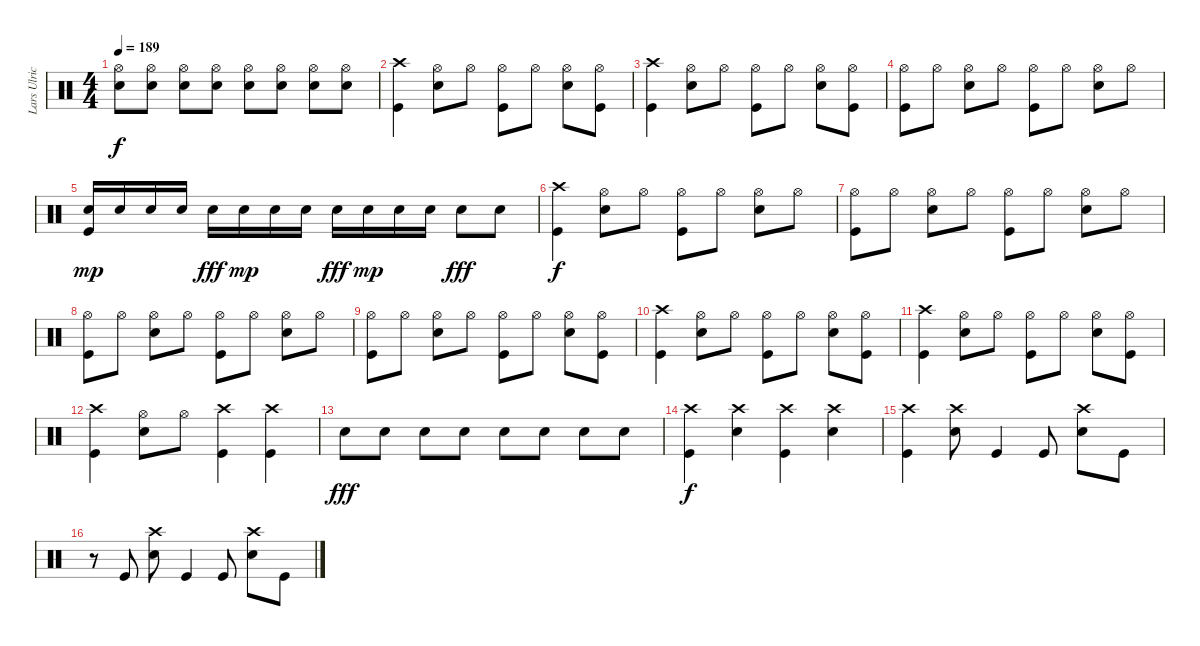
\track ("Lars Ulrich" "Lars Ulric") {instrument percussion}
\staff {score}
\articulation defaults
\ts (4 4)
\tempo 189
\clef neutral
\ks c
("Hi-Hat (open)" "Electric Snare (hit)").8{dy f} ("Hi-Hat (open)" "Electric Snare (hit)").8 ("Hi-Hat (open)" "Electric Snare (hit)").8 ("Hi-Hat (open)" "Electric Snare (hit)").8 ("Hi-Hat (open)" "Electric Snare (hit)").8 ("Hi-Hat (open)" "Electric Snare (hit)").8 ("Hi-Hat (open)" "Electric Snare (hit)").8 ("Hi-Hat (open)" "Electric Snare (hit)").8 |
("Crash high (hit)" "Kick (hit)").4 ("Hi-Hat (open)" "Electric Snare (hit)").8 "Hi-Hat (open)".8 ("Hi-Hat (open)" "Kick (hit)").8 "Hi-Hat (open)".8 ("Hi-Hat (open)" "Electric Snare (hit)").8 ("Hi-Hat (open)" "Kick (hit)").8 |
("Crash high (hit)" "Kick (hit)").4 ("Hi-Hat (open)" "Electric Snare (hit)").8 "Hi-Hat (open)".8 ("Hi-Hat (open)" "Kick (hit)").8 "Hi-Hat (open)".8 ("Hi-Hat (open)" "Electric Snare (hit)").8 ("Hi-Hat (open)" "Kick (hit)").8 |
("Hi-Hat (open)" "Kick (hit)").8 "Hi-Hat (open)".8 ("Hi-Hat (open)" "Electric Snare (hit)").8 "Hi-Hat (open)".8 ("Hi-Hat (open)" "Kick (hit)").8 "Hi-Hat (open)".8 ("Hi-Hat (open)" "Electric Snare (hit)").8 "Hi-Hat (open)".8 |
("Electric Snare (hit)" "Kick (hit)").16{dy mp} "Electric Snare (hit)".16 "Electric Snare (hit)".16 "Electric Snare (hit)".16 "Electric Snare (hit)".16{dy fff} "Electric Snare (hit)".16{dy mp} "Electric Snare (hit)".16 "Electric Snare (hit)".16 "Electric Snare (hit)".16{dy fff} "Electric Snare (hit)".16{dy mp} "Electric Snare (hit)".16 "Electric Snare (hit)".16 "Electric Snare (hit)".8{dy fff} "Electric Snare (hit)".8 |
("Crash high (hit)" "Kick (hit)").4{dy f} ("Hi-Hat (open)" "Electric Snare (hit)").8 "Hi-Hat (open)".8 ("Hi-Hat (open)" "Kick (hit)").8 "Hi-Hat (open)".8 ("Hi-Hat (open)" "Electric Snare (hit)").8 "Hi-Hat (open)".8 |
("Hi-Hat (open)" "Kick (hit)").8 "Hi-Hat (open)".8 ("Hi-Hat (open)" "Electric Snare (hit)").8 "Hi-Hat (open)".8 ("Hi-Hat (open)" "Kick (hit)").8 "Hi-Hat (open)".8 ("Hi-Hat (open)" "Electric Snare (hit)").8 "Hi-Hat (open)".8 |
("Hi-Hat (open)" "Kick (hit)").8 "Hi-Hat (open)".8 ("Hi-Hat (open)" "Electric Snare (hit)").8 "Hi-Hat (open)".8 ("Hi-Hat (open)" "Kick (hit)").8 "Hi-Hat (open)".8 ("Hi-Hat (open)" "Electric Snare (hit)").8 "Hi-Hat (open)".8 |
("Hi-Hat (open)" "Kick (hit)").8 "Hi-Hat (open)".8 ("Hi-Hat (open)" "Electric Snare (hit)").8 "Hi-Hat (open)".8 ("Hi-Hat (open)" "Kick (hit)").8 "Hi-Hat (open)".8 ("Hi-Hat (open)" "Electric Snare (hit)").8 ("Hi-Hat (open)" "Kick (hit)").8 |
("Crash high (hit)" "Kick (hit)").4 ("Hi-Hat (open)" "Electric Snare (hit)").8 "Hi-Hat (open)".8 ("Hi-Hat (open)" "Kick (hit)").8 "Hi-Hat (open)".8 ("Hi-Hat (open)" "Electric Snare (hit)").8 ("Hi-Hat (open)" "Kick (hit)").8 |
("Crash high (hit)" "Kick (hit)").4 ("Hi-Hat (open)" "Electric Snare (hit)").8 "Hi-Hat (open)".8 ("Hi-Hat (open)" "Kick (hit)").8 "Hi-Hat (open)".8 ("Hi-Hat (open)" "Electric Snare (hit)").8 ("Hi-Hat (open)" "Kick (hit)").8 |
("Crash high (hit)" "Kick (hit)").4 ("Hi-Hat (open)" "Electric Snare (hit)").8 "Hi-Hat (open)".8 ("Crash high (hit)" "Kick (hit)").4 ("Crash high (hit)" "Kick (hit)").4 |
"Electric Snare (hit)".8{dy fff} "Electric Snare (hit)".8 "Electric Snare (hit)".8 "Electric Snare (hit)".8 "Electric Snare (hit)".8 "Electric Snare (hit)".8 "Electric Snare (hit)".8 "Electric Snare (hit)".8 |
("Crash high (hit)" "Kick (hit)").4{dy f} ("Crash high (hit)" "Electric Snare (hit)").4 ("Crash high (hit)" "Kick (hit)").4 ("Crash high (hit)" "Electric Snare (hit)").4 |
("Crash high (hit)" "Kick (hit)").4 ("Crash high (hit)" "Electric Snare (hit)").8 "Kick (hit)".4 "Kick (hit)".8 ("Crash high (hit)" "Electric Snare (hit)").8 "Kick (hit)".8 |
r.8 "Kick (hit)".8 ("Crash high (hit)" "Electric Snare (hit)").8 "Kick (hit)".4 "Kick (hit)".8 ("Crash high (hit)" "Electric Snare (hit)").8 "Kick (hit)".8
